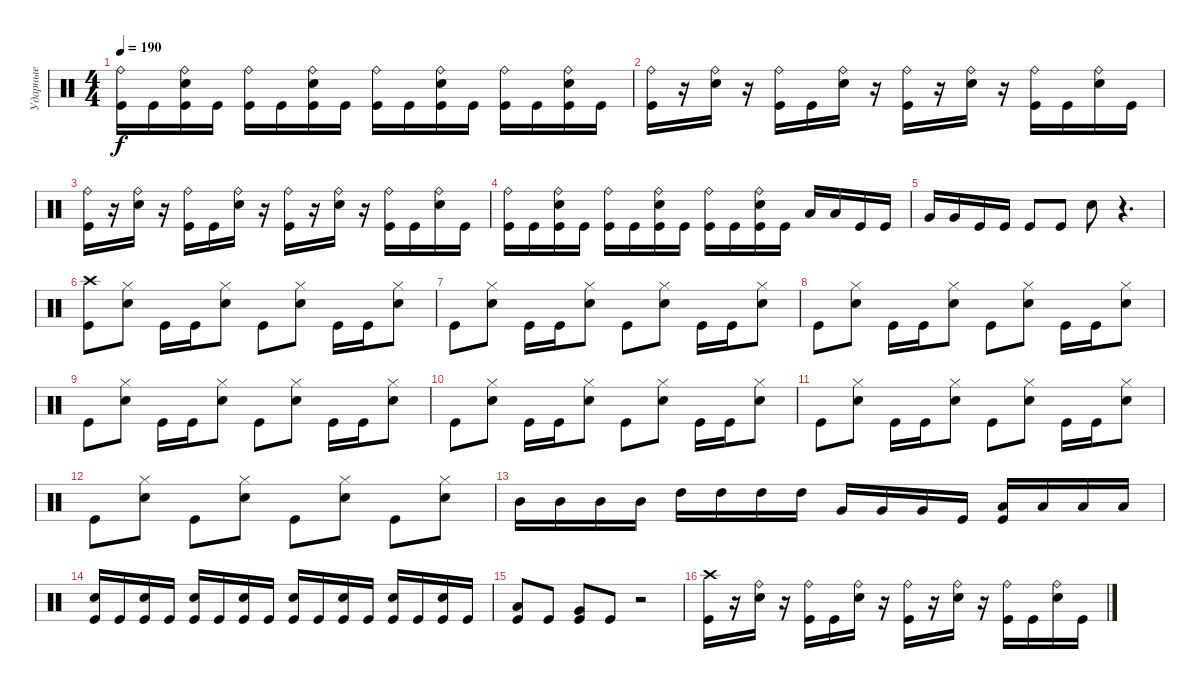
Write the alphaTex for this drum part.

\track ("Ударные" "Ударные") {instrument percussion}
\staff {score}
\articulation defaults
\ts (4 4)
\tempo 190
\clef neutral
\ks c
("Ride (bell)" "Kick (hit)").16{dy f} "Kick (hit)".16 ("Ride (bell)" "Electric Snare (hit)" "Kick (hit)").16 "Kick (hit)".16 ("Ride (bell)" "Kick (hit)").16 "Kick (hit)".16 ("Ride (bell)" "Electric Snare (hit)" "Kick (hit)").16 "Kick (hit)".16 ("Ride (bell)" "Kick (hit)").16 "Kick (hit)".16 ("Ride (bell)" "Electric Snare (hit)" "Kick (hit)").16 "Kick (hit)".16 ("Ride (bell)" "Kick (hit)").16 "Kick (hit)".16 ("Ride (bell)" "Electric Snare (hit)" "Kick (hit)").16 "Kick (hit)".16 |
("Ride (bell)" "Kick (hit)").16 r.16 ("Ride (bell)" "Electric Snare (hit)").16 r.16 ("Ride (bell)" "Kick (hit)").16 "Kick (hit)".16 ("Ride (bell)" "Electric Snare (hit)").16 r.16 ("Ride (bell)" "Kick (hit)").16 r.16 ("Ride (bell)" "Electric Snare (hit)").16 r.16 ("Ride (bell)" "Kick (hit)").16 "Kick (hit)".16 ("Ride (bell)" "Electric Snare (hit)").16 "Kick (hit)".16 |
("Ride (bell)" "Kick (hit)").16 r.16 ("Ride (bell)" "Electric Snare (hit)").16 r.16 ("Ride (bell)" "Kick (hit)").16 "Kick (hit)".16 ("Ride (bell)" "Electric Snare (hit)").16 r.16 ("Ride (bell)" "Kick (hit)").16 r.16 ("Ride (bell)" "Electric Snare (hit)").16 r.16 ("Ride (bell)" "Kick (hit)").16 "Kick (hit)".16 ("Ride (bell)" "Electric Snare (hit)").16 "Kick (hit)".16 |
("Ride (bell)" "Kick (hit)").16 "Kick (hit)".16 ("Ride (bell)" "Electric Snare (hit)" "Kick (hit)").16 "Kick (hit)".16 ("Ride (bell)" "Kick (hit)").16 "Kick (hit)".16 ("Ride (bell)" "Electric Snare (hit)" "Kick (hit)").16 "Kick (hit)".16 ("Ride (bell)" "Kick (hit)").16 "Kick (hit)".16 ("Ride (bell)" "Electric Snare (hit)" "Kick (hit)").16 "Kick (hit)".16 "Low Tom (hit)".16 "Low Tom (hit)".16 "Kick (hit)".16 "Kick (hit)".16 |
"Very Low Tom (hit)".16 "Very Low Tom (hit)".16 "Kick (hit)".16 "Kick (hit)".16 "Kick (hit)".8 "Kick (hit)".8 "Electric Snare (hit)".8 r.4{d} |
("Crash high (hit)" "Kick (hit)").8 ("Hi-Hat (closed)" "Electric Snare (hit)").8 "Kick (hit)".16 "Kick (hit)".16 ("Hi-Hat (closed)" "Electric Snare (hit)").8 "Kick (hit)".8 ("Hi-Hat (closed)" "Electric Snare (hit)").8 "Kick (hit)".16 "Kick (hit)".16 ("Hi-Hat (closed)" "Electric Snare (hit)").8 |
"Kick (hit)".8 ("Hi-Hat (closed)" "Electric Snare (hit)").8 "Kick (hit)".16 "Kick (hit)".16 ("Hi-Hat (closed)" "Electric Snare (hit)").8 "Kick (hit)".8 ("Hi-Hat (closed)" "Electric Snare (hit)").8 "Kick (hit)".16 "Kick (hit)".16 ("Hi-Hat (closed)" "Electric Snare (hit)").8 |
"Kick (hit)".8 ("Hi-Hat (closed)" "Electric Snare (hit)").8 "Kick (hit)".16 "Kick (hit)".16 ("Hi-Hat (closed)" "Electric Snare (hit)").8 "Kick (hit)".8 ("Hi-Hat (closed)" "Electric Snare (hit)").8 "Kick (hit)".16 "Kick (hit)".16 ("Hi-Hat (closed)" "Electric Snare (hit)").8 |
"Kick (hit)".8 ("Hi-Hat (closed)" "Electric Snare (hit)").8 "Kick (hit)".16 "Kick (hit)".16 ("Hi-Hat (closed)" "Electric Snare (hit)").8 "Kick (hit)".8 ("Hi-Hat (closed)" "Electric Snare (hit)").8 "Kick (hit)".16 "Kick (hit)".16 ("Hi-Hat (closed)" "Electric Snare (hit)").8 |
"Kick (hit)".8 ("Hi-Hat (closed)" "Electric Snare (hit)").8 "Kick (hit)".16 "Kick (hit)".16 ("Hi-Hat (closed)" "Electric Snare (hit)").8 "Kick (hit)".8 ("Hi-Hat (closed)" "Electric Snare (hit)").8 "Kick (hit)".16 "Kick (hit)".16 ("Hi-Hat (closed)" "Electric Snare (hit)").8 |
"Kick (hit)".8 ("Hi-Hat (closed)" "Electric Snare (hit)").8 "Kick (hit)".16 "Kick (hit)".16 ("Hi-Hat (closed)" "Electric Snare (hit)").8 "Kick (hit)".8 ("Hi-Hat (closed)" "Electric Snare (hit)").8 "Kick (hit)".16 "Kick (hit)".16 ("Hi-Hat (closed)" "Electric Snare (hit)").8 |
"Kick (hit)".8 ("Hi-Hat (closed)" "Electric Snare (hit)").8 "Kick (hit)".8 ("Hi-Hat (closed)" "Electric Snare (hit)").8 "Kick (hit)".8 ("Hi-Hat (closed)" "Electric Snare (hit)").8 "Kick (hit)".8 ("Hi-Hat (closed)" "Electric Snare (hit)").8 |
"Mid Tom (hit)".16 "Mid Tom (hit)".16 "Mid Tom (hit)".16 "Mid Tom (hit)".16 "High Tom (hit)".16 "High Tom (hit)".16 "High Tom (hit)".16 "High Tom (hit)".16 "Very Low Tom (hit)".16 "Very Low Tom (hit)".16 "Very Low Tom (hit)".16 "Kick (hit)".16 ("Low Tom (hit)" "Kick (hit)").16 "Low Tom (hit)".16 "Low Tom (hit)".16 "Low Tom (hit)".16 |
("Electric Snare (hit)" "Kick (hit)").16 "Kick (hit)".16 ("Electric Snare (hit)" "Kick (hit)").16 "Kick (hit)".16 ("Electric Snare (hit)" "Kick (hit)").16 "Kick (hit)".16 ("Electric Snare (hit)" "Kick (hit)").16 "Kick (hit)".16 ("Electric Snare (hit)" "Kick (hit)").16 "Kick (hit)".16 ("Electric Snare (hit)" "Kick (hit)").16 "Kick (hit)".16 ("Electric Snare (hit)" "Kick (hit)").16 "Kick (hit)".16 ("Electric Snare (hit)" "Kick (hit)").16 "Kick (hit)".16 |
("Low Tom (hit)" "Kick (hit)").8 "Kick (hit)".8 ("Very Low Tom (hit)" "Kick (hit)").8 "Kick (hit)".8 r.2 |
("Crash high (hit)" "Kick (hit)").16 r.16 ("Ride (bell)" "Electric Snare (hit)").16 r.16 ("Ride (bell)" "Kick (hit)").16 "Kick (hit)".16 ("Ride (bell)" "Electric Snare (hit)").16 r.16 ("Ride (bell)" "Kick (hit)").16 r.16 ("Ride (bell)" "Electric Snare (hit)").16 r.16 ("Ride (bell)" "Kick (hit)").16 "Kick (hit)".16 ("Ride (bell)" "Electric Snare (hit)").16 "Kick (hit)".16
